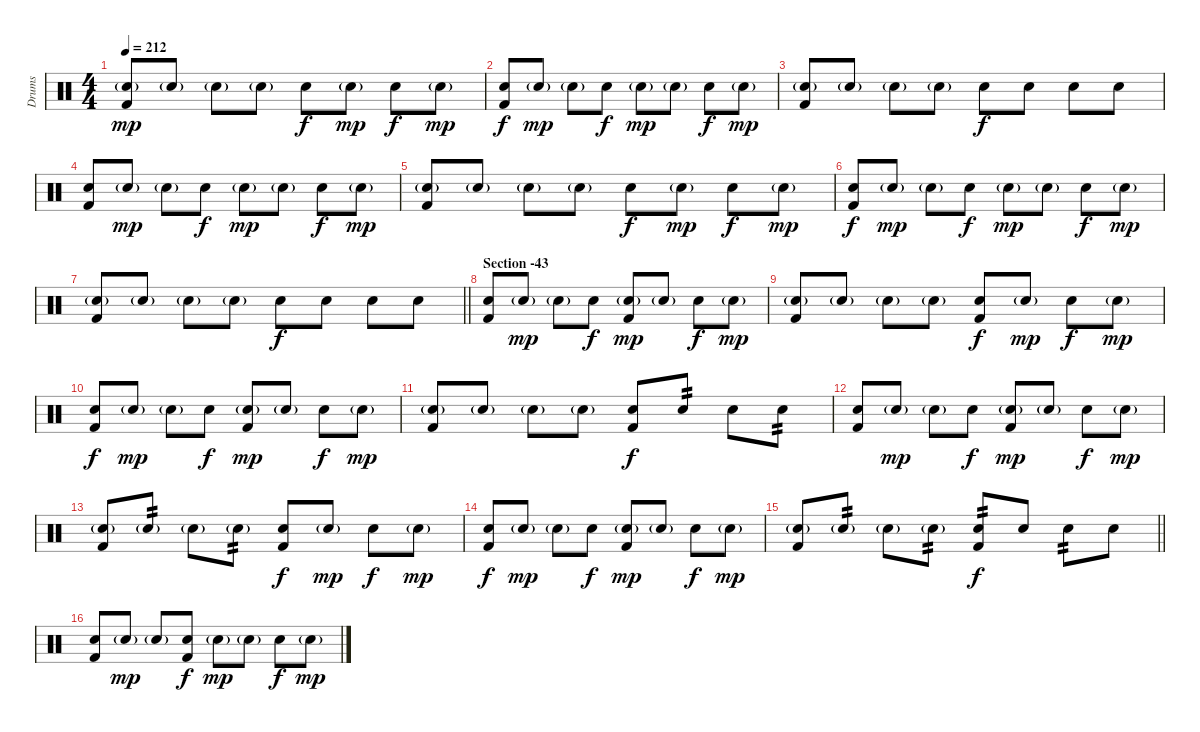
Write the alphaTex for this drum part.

\track ("Drums" "Drums") {instrument percussion}
\staff {score}
\articulation defaults
\ts (4 4)
\tempo 212
\clef neutral
\ks c
("Snare (hit) 2"{g} "Kick (hit) 2").8{dy mp} "Snare (hit) 2"{g}.8 "Snare (hit) 2"{g}.8 "Snare (hit) 2"{g}.8 "Snare (hit) 2".8{dy f} "Snare (hit) 2"{g}.8{dy mp} "Snare (hit) 2".8{dy f} "Snare (hit) 2"{g}.8{dy mp} |
("Snare (hit) 2" "Kick (hit) 2").8{dy f} "Snare (hit) 2"{g}.8{dy mp} "Snare (hit) 2"{g}.8 "Snare (hit) 2".8{dy f} "Snare (hit) 2"{g}.8{dy mp} "Snare (hit) 2"{g}.8 "Snare (hit) 2".8{dy f} "Snare (hit) 2"{g}.8{dy mp} |
("Snare (hit) 2"{g} "Kick (hit) 2").8 "Snare (hit) 2"{g}.8 "Snare (hit) 2"{g}.8 "Snare (hit) 2"{g}.8 "Snare (hit) 2".8{dy f} "Snare (hit) 2".8 "Snare (hit) 2".8 "Snare (hit) 2".8 |
("Snare (hit) 2" "Kick (hit) 2").8 "Snare (hit) 2"{g}.8{dy mp} "Snare (hit) 2"{g}.8 "Snare (hit) 2".8{dy f} "Snare (hit) 2"{g}.8{dy mp} "Snare (hit) 2"{g}.8 "Snare (hit) 2".8{dy f} "Snare (hit) 2"{g}.8{dy mp} |
("Snare (hit) 2"{g} "Kick (hit) 2").8 "Snare (hit) 2"{g}.8 "Snare (hit) 2"{g}.8 "Snare (hit) 2"{g}.8 "Snare (hit) 2".8{dy f} "Snare (hit) 2"{g}.8{dy mp} "Snare (hit) 2".8{dy f} "Snare (hit) 2"{g}.8{dy mp} |
("Snare (hit) 2" "Kick (hit) 2").8{dy f} "Snare (hit) 2"{g}.8{dy mp} "Snare (hit) 2"{g}.8 "Snare (hit) 2".8{dy f} "Snare (hit) 2"{g}.8{dy mp} "Snare (hit) 2"{g}.8 "Snare (hit) 2".8{dy f} "Snare (hit) 2"{g}.8{dy mp} |
\barLineRight lightlight
("Snare (hit) 2"{g} "Kick (hit) 2").8 "Snare (hit) 2"{g}.8 "Snare (hit) 2"{g}.8 "Snare (hit) 2"{g}.8 "Snare (hit) 2".8{dy f} "Snare (hit) 2".8 "Snare (hit) 2".8 "Snare (hit) 2".8 |
\section ("" "Section -43")
("Snare (hit) 2" "Kick (hit) 2").8 "Snare (hit) 2"{g}.8{dy mp} "Snare (hit) 2"{g}.8 "Snare (hit) 2".8{dy f} ("Snare (hit) 2"{g} "Kick (hit) 2").8{dy mp} "Snare (hit) 2"{g}.8 "Snare (hit) 2".8{dy f} "Snare (hit) 2"{g}.8{dy mp} |
("Snare (hit) 2"{g} "Kick (hit) 2").8 "Snare (hit) 2"{g}.8 "Snare (hit) 2"{g}.8 "Snare (hit) 2"{g}.8 ("Snare (hit) 2" "Kick (hit) 2").8{dy f} "Snare (hit) 2"{g}.8{dy mp} "Snare (hit) 2".8{dy f} "Snare (hit) 2"{g}.8{dy mp} |
("Snare (hit) 2" "Kick (hit) 2").8{dy f} "Snare (hit) 2"{g}.8{dy mp} "Snare (hit) 2"{g}.8 "Snare (hit) 2".8{dy f} ("Snare (hit) 2"{g} "Kick (hit) 2").8{dy mp} "Snare (hit) 2"{g}.8 "Snare (hit) 2".8{dy f} "Snare (hit) 2"{g}.8{dy mp} |
("Snare (hit) 2"{g} "Kick (hit) 2").8 "Snare (hit) 2"{g}.8 "Snare (hit) 2"{g}.8 "Snare (hit) 2"{g}.8 ("Snare (hit) 2" "Kick (hit) 2").8{dy f} "Snare (hit) 2".8{tp 2} "Snare (hit) 2".8 "Snare (hit) 2".8{tp 2} |
("Snare (hit) 2" "Kick (hit) 2").8 "Snare (hit) 2"{g}.8{dy mp} "Snare (hit) 2"{g}.8 "Snare (hit) 2".8{dy f} ("Snare (hit) 2"{g} "Kick (hit) 2").8{dy mp} "Snare (hit) 2"{g}.8 "Snare (hit) 2".8{dy f} "Snare (hit) 2"{g}.8{dy mp} |
("Snare (hit) 2"{g} "Kick (hit) 2").8 "Snare (hit) 2"{g}.8{tp 2} "Snare (hit) 2"{g}.8 "Snare (hit) 2"{g}.8{tp 2} ("Snare (hit) 2" "Kick (hit) 2").8{dy f} "Snare (hit) 2"{g}.8{dy mp} "Snare (hit) 2".8{dy f} "Snare (hit) 2"{g}.8{dy mp} |
("Snare (hit) 2" "Kick (hit) 2").8{dy f} "Snare (hit) 2"{g}.8{dy mp} "Snare (hit) 2"{g}.8 "Snare (hit) 2".8{dy f} ("Snare (hit) 2"{g} "Kick (hit) 2").8{dy mp} "Snare (hit) 2"{g}.8 "Snare (hit) 2".8{dy f} "Snare (hit) 2"{g}.8{dy mp} |
\barLineRight lightlight
("Snare (hit) 2"{g} "Kick (hit) 2").8 "Snare (hit) 2"{g}.8{tp 2} "Snare (hit) 2"{g}.8 "Snare (hit) 2"{g}.8{tp 2} ("Snare (hit) 2" "Kick (hit) 2").8{tp 2 dy f} "Snare (hit) 2".8 "Snare (hit) 2".8{tp 2} "Snare (hit) 2".8 |
("Snare (hit) 2" "Kick (hit) 2").8 "Snare (hit) 2"{g}.8{dy mp} "Snare (hit) 2"{g}.8 ("Snare (hit) 2" "Kick (hit) 2").8{dy f} "Snare (hit) 2"{g}.8{dy mp} "Snare (hit) 2"{g}.8 "Snare (hit) 2".8{dy f} "Snare (hit) 2"{g}.8{dy mp}
